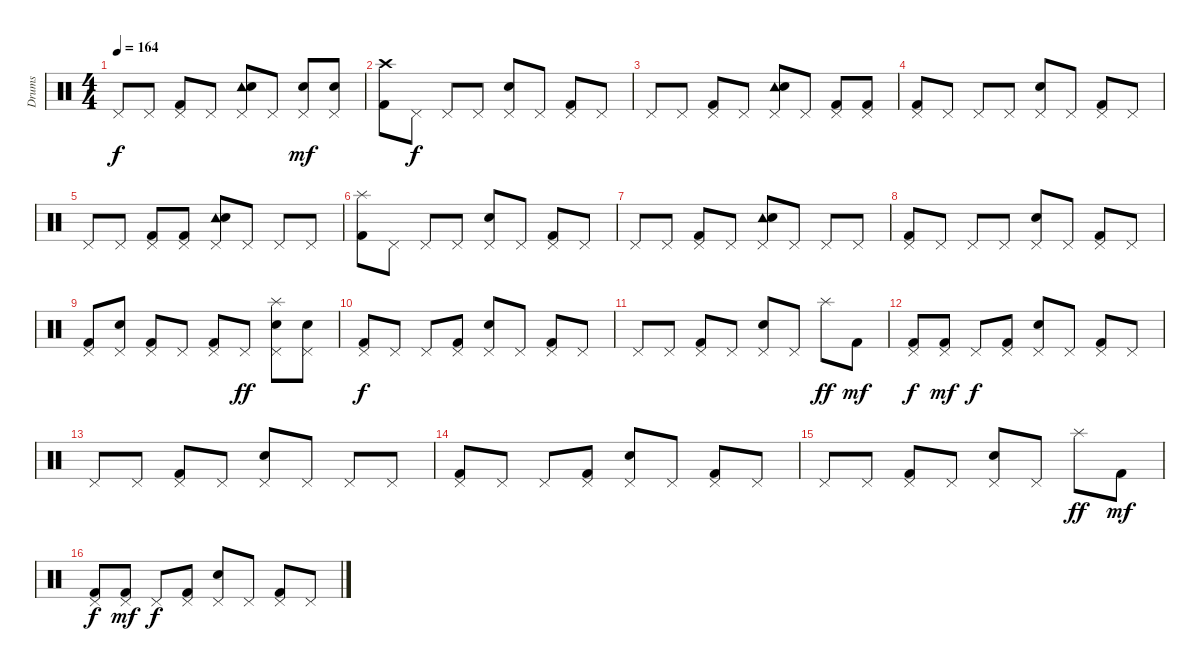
\track ("Drums" "Drums") {instrument percussion}
\staff {score}
\articulation defaults
\ts (4 4)
\tempo 164
\clef neutral
\ks c "Pedal Hi-Hat (hit)".8{dy f} "Pedal Hi-Hat (hit)".8
("Pedal Hi-Hat (hit)" "Kick (hit) 2").8 "Pedal Hi-Hat (hit)".8 ("Tambourine (hit)" "Pedal Hi-Hat (hit)" "Snare (hit) 2").8 "Pedal Hi-Hat (hit)".8 ("Pedal Hi-Hat (hit)" "Snare (hit) 2").8{dy mf} ("Pedal Hi-Hat (hit)" "Snare (hit) 2").8 |
("Crash high (hit)" "Kick (hit) 2").8 "Pedal Hi-Hat (hit)".8{dy f} "Pedal Hi-Hat (hit)".8 "Pedal Hi-Hat (hit)".8 ("Pedal Hi-Hat (hit)" "Snare (hit) 2").8 "Pedal Hi-Hat (hit)".8 ("Pedal Hi-Hat (hit)" "Kick (hit) 2").8 "Pedal Hi-Hat (hit)".8 |
"Pedal Hi-Hat (hit)".8 "Pedal Hi-Hat (hit)".8 ("Pedal Hi-Hat (hit)" "Kick (hit) 2").8 "Pedal Hi-Hat (hit)".8 ("Tambourine (hit)" "Pedal Hi-Hat (hit)" "Snare (hit) 2").8 "Pedal Hi-Hat (hit)".8 ("Pedal Hi-Hat (hit)" "Kick (hit) 2").8 ("Pedal Hi-Hat (hit)" "Kick (hit) 2").8 |
("Pedal Hi-Hat (hit)" "Kick (hit) 2").8 "Pedal Hi-Hat (hit)".8 "Pedal Hi-Hat (hit)".8 "Pedal Hi-Hat (hit)".8 ("Pedal Hi-Hat (hit)" "Snare (hit) 2").8 "Pedal Hi-Hat (hit)".8 ("Pedal Hi-Hat (hit)" "Kick (hit) 2").8 "Pedal Hi-Hat (hit)".8 |
"Pedal Hi-Hat (hit)".8 "Pedal Hi-Hat (hit)".8 ("Pedal Hi-Hat (hit)" "Kick (hit) 2").8 ("Pedal Hi-Hat (hit)" "Kick (hit) 2").8 ("Tambourine (hit)" "Pedal Hi-Hat (hit)" "Snare (hit) 2").8 "Pedal Hi-Hat (hit)".8 "Pedal Hi-Hat (hit)".8 "Pedal Hi-Hat (hit)".8 |
("Splash (hit)" "Kick (hit) 2").8 "Pedal Hi-Hat (hit)".8 "Pedal Hi-Hat (hit)".8 "Pedal Hi-Hat (hit)".8 ("Pedal Hi-Hat (hit)" "Snare (hit) 2").8 "Pedal Hi-Hat (hit)".8 ("Pedal Hi-Hat (hit)" "Kick (hit) 2").8 "Pedal Hi-Hat (hit)".8 |
"Pedal Hi-Hat (hit)".8 "Pedal Hi-Hat (hit)".8 ("Pedal Hi-Hat (hit)" "Kick (hit) 2").8 "Pedal Hi-Hat (hit)".8 ("Tambourine (hit)" "Pedal Hi-Hat (hit)" "Snare (hit) 2").8 "Pedal Hi-Hat (hit)".8 "Pedal Hi-Hat (hit)".8 "Pedal Hi-Hat (hit)".8 |
("Pedal Hi-Hat (hit)" "Kick (hit) 2").8 "Pedal Hi-Hat (hit)".8 "Pedal Hi-Hat (hit)".8 "Pedal Hi-Hat (hit)".8 ("Pedal Hi-Hat (hit)" "Snare (hit) 2").8 "Pedal Hi-Hat (hit)".8 ("Pedal Hi-Hat (hit)" "Kick (hit) 2").8 "Pedal Hi-Hat (hit)".8 |
("Pedal Hi-Hat (hit)" "Kick (hit) 2").8 ("Pedal Hi-Hat (hit)" "Snare (hit) 2").8 ("Pedal Hi-Hat (hit)" "Kick (hit) 2").8 "Pedal Hi-Hat (hit)".8 ("Pedal Hi-Hat (hit)" "Kick (hit) 2").8 "Pedal Hi-Hat (hit)".8{dy ff} ("Splash (hit)" "Pedal Hi-Hat (hit)" "Snare (hit) 2").8 ("Pedal Hi-Hat (hit)" "Snare (hit) 2").8 |
("Pedal Hi-Hat (hit)" "Kick (hit) 2").8{dy f} "Pedal Hi-Hat (hit)".8 "Pedal Hi-Hat (hit)".8 ("Pedal Hi-Hat (hit)" "Kick (hit) 2").8 ("Pedal Hi-Hat (hit)" "Snare (hit) 2").8 "Pedal Hi-Hat (hit)".8 ("Pedal Hi-Hat (hit)" "Kick (hit) 2").8 "Pedal Hi-Hat (hit)".8 |
"Pedal Hi-Hat (hit)".8 "Pedal Hi-Hat (hit)".8 ("Pedal Hi-Hat (hit)" "Kick (hit) 2").8 "Pedal Hi-Hat (hit)".8 ("Pedal Hi-Hat (hit)" "Snare (hit) 2").8 "Pedal Hi-Hat (hit)".8 "Splash (hit)".8{dy ff} "Kick (hit) 2".8{dy mf} |
("Pedal Hi-Hat (hit)" "Kick (hit) 2").8{dy f} ("Pedal Hi-Hat (hit)" "Kick (hit) 2").8{dy mf} "Pedal Hi-Hat (hit)".8{dy f} ("Pedal Hi-Hat (hit)" "Kick (hit) 2").8 ("Pedal Hi-Hat (hit)" "Snare (hit) 2").8 "Pedal Hi-Hat (hit)".8 ("Pedal Hi-Hat (hit)" "Kick (hit) 2").8 "Pedal Hi-Hat (hit)".8 |
"Pedal Hi-Hat (hit)".8 "Pedal Hi-Hat (hit)".8 ("Pedal Hi-Hat (hit)" "Kick (hit) 2").8 "Pedal Hi-Hat (hit)".8 ("Pedal Hi-Hat (hit)" "Snare (hit) 2").8 "Pedal Hi-Hat (hit)".8 "Pedal Hi-Hat (hit)".8 "Pedal Hi-Hat (hit)".8 |
("Pedal Hi-Hat (hit)" "Kick (hit) 2").8 "Pedal Hi-Hat (hit)".8 "Pedal Hi-Hat (hit)".8 ("Pedal Hi-Hat (hit)" "Kick (hit) 2").8 ("Pedal Hi-Hat (hit)" "Snare (hit) 2").8 "Pedal Hi-Hat (hit)".8 ("Pedal Hi-Hat (hit)" "Kick (hit) 2").8 "Pedal Hi-Hat (hit)".8 |
"Pedal Hi-Hat (hit)".8 "Pedal Hi-Hat (hit)".8 ("Pedal Hi-Hat (hit)" "Kick (hit) 2").8 "Pedal Hi-Hat (hit)".8 ("Pedal Hi-Hat (hit)" "Snare (hit) 2").8 "Pedal Hi-Hat (hit)".8 "Splash (hit)".8{dy ff} "Kick (hit) 2".8{dy mf} |
("Pedal Hi-Hat (hit)" "Kick (hit) 2").8{dy f} ("Pedal Hi-Hat (hit)" "Kick (hit) 2").8{dy mf} "Pedal Hi-Hat (hit)".8{dy f} ("Pedal Hi-Hat (hit)" "Kick (hit) 2").8 ("Pedal Hi-Hat (hit)" "Snare (hit) 2").8 "Pedal Hi-Hat (hit)".8 ("Pedal Hi-Hat (hit)" "Kick (hit) 2").8 "Pedal Hi-Hat (hit)".8
